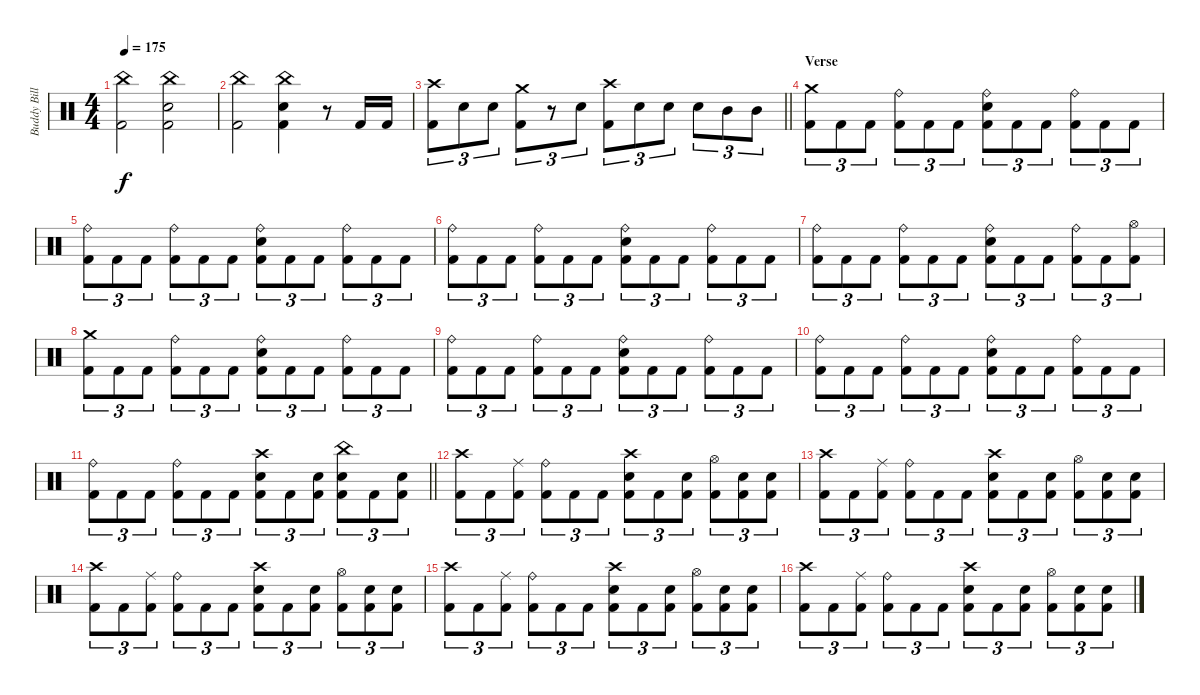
\track ("Buddy Bill" "Buddy Bill") {instrument percussion}
\staff {score}
\articulation defaults
\ts (4 4)
\tempo 175
\clef neutral
\ks c
("China (hit)" "Kick (hit) 2").2{dy f} ("China (hit)" "Snare (hit) 2" "Kick (hit) 2").2 |
("China (hit)" "Kick (hit) 2").2 ("China (hit)" "Snare (hit) 2" "Kick (hit) 2").4 r.8 "Kick (hit) 2".16 "Kick (hit) 2".16 |
\barLineRight lightlight
("Crash high (hit)" "Kick (hit) 2").8{tu (3 2)} "Snare (hit) 2".8{tu (3 2)} "Snare (hit) 2".8{tu (3 2)} ("Crash medium (hit)" "Kick (hit) 2").8{tu (3 2)} r.8{tu (3 2)} "Snare (hit) 2".8{tu (3 2)} ("Crash high (hit)" "Kick (hit) 2").8{tu (3 2)} "Snare (hit) 2".8{tu (3 2)} "Snare (hit) 2".8{tu (3 2)} "Snare (hit) 2".8{tu (3 2)} "Mid Tom (hit)".8{tu (3 2)} "Mid Tom (hit)".8{tu (3 2)} |
\section ("" "Verse")
("Crash medium (hit)" "Kick (hit) 2").8{tu (3 2)} "Kick (hit) 2".8{tu (3 2)} "Kick (hit) 2".8{tu (3 2)} ("Ride (bell)" "Kick (hit) 2").8{tu (3 2)} "Kick (hit) 2".8{tu (3 2)} "Kick (hit) 2".8{tu (3 2)} ("Ride (bell)" "Snare (hit) 2" "Kick (hit) 2").8{tu (3 2)} "Kick (hit) 2".8{tu (3 2)} "Kick (hit) 2".8{tu (3 2)} ("Ride (bell)" "Kick (hit) 2").8{tu (3 2)} "Kick (hit) 2".8{tu (3 2)} "Kick (hit) 2".8{tu (3 2)} |
("Ride (bell)" "Kick (hit) 2").8{tu (3 2)} "Kick (hit) 2".8{tu (3 2)} "Kick (hit) 2".8{tu (3 2)} ("Ride (bell)" "Kick (hit) 2").8{tu (3 2)} "Kick (hit) 2".8{tu (3 2)} "Kick (hit) 2".8{tu (3 2)} ("Ride (bell)" "Snare (hit) 2" "Kick (hit) 2").8{tu (3 2)} "Kick (hit) 2".8{tu (3 2)} "Kick (hit) 2".8{tu (3 2)} ("Ride (bell)" "Kick (hit) 2").8{tu (3 2)} "Kick (hit) 2".8{tu (3 2)} "Kick (hit) 2".8{tu (3 2)} |
("Ride (bell)" "Kick (hit) 2").8{tu (3 2)} "Kick (hit) 2".8{tu (3 2)} "Kick (hit) 2".8{tu (3 2)} ("Ride (bell)" "Kick (hit) 2").8{tu (3 2)} "Kick (hit) 2".8{tu (3 2)} "Kick (hit) 2".8{tu (3 2)} ("Ride (bell)" "Snare (hit) 2" "Kick (hit) 2").8{tu (3 2)} "Kick (hit) 2".8{tu (3 2)} "Kick (hit) 2".8{tu (3 2)} ("Ride (bell)" "Kick (hit) 2").8{tu (3 2)} "Kick (hit) 2".8{tu (3 2)} "Kick (hit) 2".8{tu (3 2)} |
("Ride (bell)" "Kick (hit) 2").8{tu (3 2)} "Kick (hit) 2".8{tu (3 2)} "Kick (hit) 2".8{tu (3 2)} ("Ride (bell)" "Kick (hit) 2").8{tu (3 2)} "Kick (hit) 2".8{tu (3 2)} "Kick (hit) 2".8{tu (3 2)} ("Ride (bell)" "Snare (hit) 2" "Kick (hit) 2").8{tu (3 2)} "Kick (hit) 2".8{tu (3 2)} "Kick (hit) 2".8{tu (3 2)} ("Ride (bell)" "Kick (hit) 2").8{tu (3 2)} "Kick (hit) 2".8{tu (3 2)} ("Hi-Hat (open)" "Kick (hit) 2").8{tu (3 2)} |
("Crash medium (hit)" "Kick (hit) 2").8{tu (3 2)} "Kick (hit) 2".8{tu (3 2)} "Kick (hit) 2".8{tu (3 2)} ("Ride (bell)" "Kick (hit) 2").8{tu (3 2)} "Kick (hit) 2".8{tu (3 2)} "Kick (hit) 2".8{tu (3 2)} ("Ride (bell)" "Snare (hit) 2" "Kick (hit) 2").8{tu (3 2)} "Kick (hit) 2".8{tu (3 2)} "Kick (hit) 2".8{tu (3 2)} ("Ride (bell)" "Kick (hit) 2").8{tu (3 2)} "Kick (hit) 2".8{tu (3 2)} "Kick (hit) 2".8{tu (3 2)} |
("Ride (bell)" "Kick (hit) 2").8{tu (3 2)} "Kick (hit) 2".8{tu (3 2)} "Kick (hit) 2".8{tu (3 2)} ("Ride (bell)" "Kick (hit) 2").8{tu (3 2)} "Kick (hit) 2".8{tu (3 2)} "Kick (hit) 2".8{tu (3 2)} ("Ride (bell)" "Snare (hit) 2" "Kick (hit) 2").8{tu (3 2)} "Kick (hit) 2".8{tu (3 2)} "Kick (hit) 2".8{tu (3 2)} ("Ride (bell)" "Kick (hit) 2").8{tu (3 2)} "Kick (hit) 2".8{tu (3 2)} "Kick (hit) 2".8{tu (3 2)} |
("Ride (bell)" "Kick (hit) 2").8{tu (3 2)} "Kick (hit) 2".8{tu (3 2)} "Kick (hit) 2".8{tu (3 2)} ("Ride (bell)" "Kick (hit) 2").8{tu (3 2)} "Kick (hit) 2".8{tu (3 2)} "Kick (hit) 2".8{tu (3 2)} ("Ride (bell)" "Snare (hit) 2" "Kick (hit) 2").8{tu (3 2)} "Kick (hit) 2".8{tu (3 2)} "Kick (hit) 2".8{tu (3 2)} ("Ride (bell)" "Kick (hit) 2").8{tu (3 2)} "Kick (hit) 2".8{tu (3 2)} "Kick (hit) 2".8{tu (3 2)} |
\barLineRight lightlight
("Ride (bell)" "Kick (hit) 2").8{tu (3 2)} "Kick (hit) 2".8{tu (3 2)} "Kick (hit) 2".8{tu (3 2)} ("Ride (bell)" "Kick (hit) 2").8{tu (3 2)} "Kick (hit) 2".8{tu (3 2)} "Kick (hit) 2".8{tu (3 2)} ("Crash high (hit)" "Snare (hit) 2" "Kick (hit) 2").8{tu (3 2)} "Kick (hit) 2".8{tu (3 2)} ("Snare (hit) 2" "Kick (hit) 2").8{tu (3 2)} ("China (hit)" "Snare (hit) 2" "Kick (hit) 2").8{tu (3 2)} "Kick (hit) 2".8{tu (3 2)} ("Snare (hit) 2" "Kick (hit) 2").8{tu (3 2)} |
\section ("" "")
("Crash high (hit)" "Kick (hit) 2").8{tu (3 2)} "Kick (hit) 2".8{tu (3 2)} ("Ride (middle)" "Kick (hit) 2").8{tu (3 2)} ("Ride (bell)" "Kick (hit) 2").8{tu (3 2)} "Kick (hit) 2".8{tu (3 2)} "Kick (hit) 2".8{tu (3 2)} ("Crash high (hit)" "Snare (hit) 2" "Kick (hit) 2").8{tu (3 2)} "Kick (hit) 2".8{tu (3 2)} ("Snare (hit) 2" "Kick (hit) 2").8{tu (3 2)} ("Hi-Hat (open)" "Kick (hit) 2").8{tu (3 2)} ("Snare (hit) 2" "Kick (hit) 2").8{tu (3 2)} ("Snare (hit) 2" "Kick (hit) 2").8{tu (3 2)} |
("Crash high (hit)" "Kick (hit) 2").8{tu (3 2)} "Kick (hit) 2".8{tu (3 2)} ("Ride (middle)" "Kick (hit) 2").8{tu (3 2)} ("Ride (bell)" "Kick (hit) 2").8{tu (3 2)} "Kick (hit) 2".8{tu (3 2)} "Kick (hit) 2".8{tu (3 2)} ("Crash high (hit)" "Snare (hit) 2" "Kick (hit) 2").8{tu (3 2)} "Kick (hit) 2".8{tu (3 2)} ("Snare (hit) 2" "Kick (hit) 2").8{tu (3 2)} ("Hi-Hat (open)" "Kick (hit) 2").8{tu (3 2)} ("Snare (hit) 2" "Kick (hit) 2").8{tu (3 2)} ("Snare (hit) 2" "Kick (hit) 2").8{tu (3 2)} |
("Crash high (hit)" "Kick (hit) 2").8{tu (3 2)} "Kick (hit) 2".8{tu (3 2)} ("Ride (middle)" "Kick (hit) 2").8{tu (3 2)} ("Ride (bell)" "Kick (hit) 2").8{tu (3 2)} "Kick (hit) 2".8{tu (3 2)} "Kick (hit) 2".8{tu (3 2)} ("Crash high (hit)" "Snare (hit) 2" "Kick (hit) 2").8{tu (3 2)} "Kick (hit) 2".8{tu (3 2)} ("Snare (hit) 2" "Kick (hit) 2").8{tu (3 2)} ("Hi-Hat (open)" "Kick (hit) 2").8{tu (3 2)} ("Snare (hit) 2" "Kick (hit) 2").8{tu (3 2)} ("Snare (hit) 2" "Kick (hit) 2").8{tu (3 2)} |
("Crash high (hit)" "Kick (hit) 2").8{tu (3 2)} "Kick (hit) 2".8{tu (3 2)} ("Ride (middle)" "Kick (hit) 2").8{tu (3 2)} ("Ride (bell)" "Kick (hit) 2").8{tu (3 2)} "Kick (hit) 2".8{tu (3 2)} "Kick (hit) 2".8{tu (3 2)} ("Crash high (hit)" "Snare (hit) 2" "Kick (hit) 2").8{tu (3 2)} "Kick (hit) 2".8{tu (3 2)} ("Snare (hit) 2" "Kick (hit) 2").8{tu (3 2)} ("Hi-Hat (open)" "Kick (hit) 2").8{tu (3 2)} ("Snare (hit) 2" "Kick (hit) 2").8{tu (3 2)} ("Snare (hit) 2" "Kick (hit) 2").8{tu (3 2)} |
("Crash high (hit)" "Kick (hit) 2").8{tu (3 2)} "Kick (hit) 2".8{tu (3 2)} ("Ride (middle)" "Kick (hit) 2").8{tu (3 2)} ("Ride (bell)" "Kick (hit) 2").8{tu (3 2)} "Kick (hit) 2".8{tu (3 2)} "Kick (hit) 2".8{tu (3 2)} ("Crash high (hit)" "Snare (hit) 2" "Kick (hit) 2").8{tu (3 2)} "Kick (hit) 2".8{tu (3 2)} ("Snare (hit) 2" "Kick (hit) 2").8{tu (3 2)} ("Hi-Hat (open)" "Kick (hit) 2").8{tu (3 2)} ("Snare (hit) 2" "Kick (hit) 2").8{tu (3 2)} ("Snare (hit) 2" "Kick (hit) 2").8{tu (3 2)}
